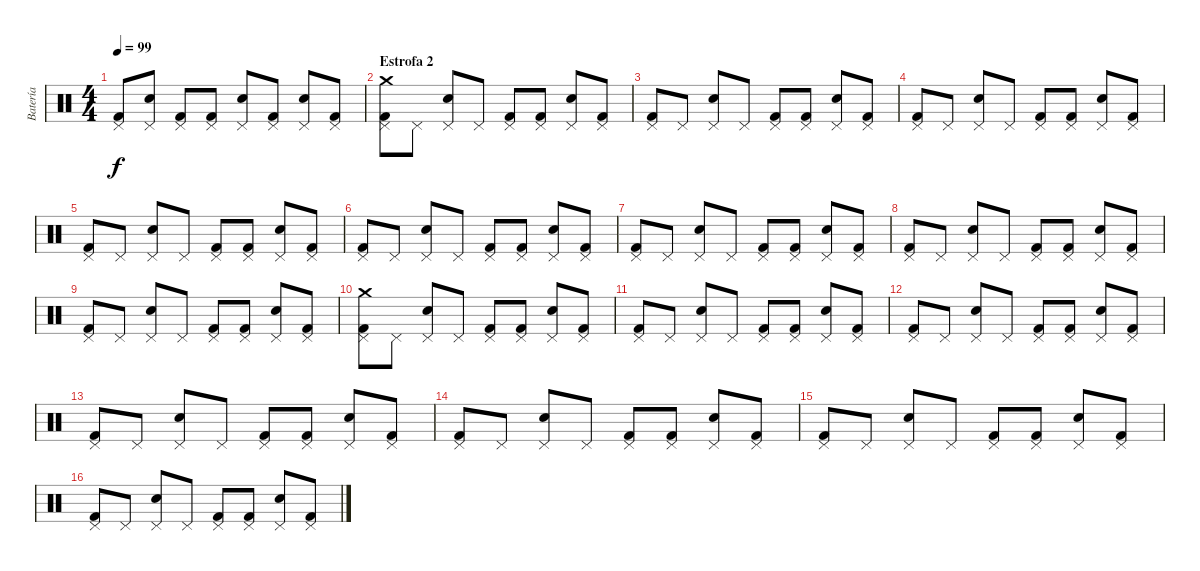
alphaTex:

\track ("Batería" "Batería") {instrument percussion}
\staff {score}
\articulation defaults
\ts (4 4)
\tempo 99
\clef neutral
\ks c
("Kick (hit) 2" "Pedal Hi-Hat (hit)").8{dy f} ("Snare (hit) 2" "Pedal Hi-Hat (hit)").8 ("Kick (hit) 2" "Pedal Hi-Hat (hit)").8 ("Kick (hit) 2" "Pedal Hi-Hat (hit)").8 ("Pedal Hi-Hat (hit)" "Snare (hit) 2").8 ("Pedal Hi-Hat (hit)" "Kick (hit) 2").8 ("Pedal Hi-Hat (hit)" "Snare (hit) 2").8 ("Pedal Hi-Hat (hit)" "Kick (hit) 2").8 |
\section ("" "Estrofa 2")
("Crash medium (hit)" "Pedal Hi-Hat (hit)" "Kick (hit) 2").8 "Pedal Hi-Hat (hit)".8 ("Snare (hit) 2" "Pedal Hi-Hat (hit)").8 "Pedal Hi-Hat (hit)".8 ("Pedal Hi-Hat (hit)" "Kick (hit) 2").8 ("Kick (hit) 2" "Pedal Hi-Hat (hit)").8 ("Pedal Hi-Hat (hit)" "Snare (hit) 2").8 ("Kick (hit) 2" "Pedal Hi-Hat (hit)").8 |
("Pedal Hi-Hat (hit)" "Kick (hit) 2").8 "Pedal Hi-Hat (hit)".8 ("Pedal Hi-Hat (hit)" "Snare (hit) 2").8 "Pedal Hi-Hat (hit)".8 ("Pedal Hi-Hat (hit)" "Kick (hit) 2").8 ("Pedal Hi-Hat (hit)" "Kick (hit) 2").8 ("Pedal Hi-Hat (hit)" "Snare (hit) 2").8 ("Pedal Hi-Hat (hit)" "Kick (hit) 2").8 |
("Kick (hit) 2" "Pedal Hi-Hat (hit)").8 "Pedal Hi-Hat (hit)".8 ("Snare (hit) 2" "Pedal Hi-Hat (hit)").8 "Pedal Hi-Hat (hit)".8 ("Kick (hit) 2" "Pedal Hi-Hat (hit)").8 ("Kick (hit) 2" "Pedal Hi-Hat (hit)").8 ("Snare (hit) 2" "Pedal Hi-Hat (hit)").8 ("Kick (hit) 2" "Pedal Hi-Hat (hit)").8 |
("Pedal Hi-Hat (hit)" "Kick (hit) 2").8 "Pedal Hi-Hat (hit)".8 ("Pedal Hi-Hat (hit)" "Snare (hit) 2").8 "Pedal Hi-Hat (hit)".8 ("Pedal Hi-Hat (hit)" "Kick (hit) 2").8 ("Pedal Hi-Hat (hit)" "Kick (hit) 2").8 ("Pedal Hi-Hat (hit)" "Snare (hit) 2").8 ("Pedal Hi-Hat (hit)" "Kick (hit) 2").8 |
("Pedal Hi-Hat (hit)" "Kick (hit) 2").8 "Pedal Hi-Hat (hit)".8 ("Snare (hit) 2" "Pedal Hi-Hat (hit)").8 "Pedal Hi-Hat (hit)".8 ("Pedal Hi-Hat (hit)" "Kick (hit) 2").8 ("Kick (hit) 2" "Pedal Hi-Hat (hit)").8 ("Pedal Hi-Hat (hit)" "Snare (hit) 2").8 ("Kick (hit) 2" "Pedal Hi-Hat (hit)").8 |
("Pedal Hi-Hat (hit)" "Kick (hit) 2").8 "Pedal Hi-Hat (hit)".8 ("Pedal Hi-Hat (hit)" "Snare (hit) 2").8 "Pedal Hi-Hat (hit)".8 ("Pedal Hi-Hat (hit)" "Kick (hit) 2").8 ("Pedal Hi-Hat (hit)" "Kick (hit) 2").8 ("Pedal Hi-Hat (hit)" "Snare (hit) 2").8 ("Pedal Hi-Hat (hit)" "Kick (hit) 2").8 |
("Kick (hit) 2" "Pedal Hi-Hat (hit)").8 "Pedal Hi-Hat (hit)".8 ("Snare (hit) 2" "Pedal Hi-Hat (hit)").8 "Pedal Hi-Hat (hit)".8 ("Kick (hit) 2" "Pedal Hi-Hat (hit)").8 ("Kick (hit) 2" "Pedal Hi-Hat (hit)").8 ("Snare (hit) 2" "Pedal Hi-Hat (hit)").8 ("Kick (hit) 2" "Pedal Hi-Hat (hit)").8 |
("Pedal Hi-Hat (hit)" "Kick (hit) 2").8 "Pedal Hi-Hat (hit)".8 ("Pedal Hi-Hat (hit)" "Snare (hit) 2").8 "Pedal Hi-Hat (hit)".8 ("Pedal Hi-Hat (hit)" "Kick (hit) 2").8 ("Pedal Hi-Hat (hit)" "Kick (hit) 2").8 ("Pedal Hi-Hat (hit)" "Snare (hit) 2").8 ("Pedal Hi-Hat (hit)" "Kick (hit) 2").8 |
("Crash medium (hit)" "Pedal Hi-Hat (hit)" "Kick (hit) 2").8 "Pedal Hi-Hat (hit)".8 ("Snare (hit) 2" "Pedal Hi-Hat (hit)").8 "Pedal Hi-Hat (hit)".8 ("Pedal Hi-Hat (hit)" "Kick (hit) 2").8 ("Kick (hit) 2" "Pedal Hi-Hat (hit)").8 ("Pedal Hi-Hat (hit)" "Snare (hit) 2").8 ("Kick (hit) 2" "Pedal Hi-Hat (hit)").8 |
("Kick (hit) 2" "Pedal Hi-Hat (hit)").8 "Pedal Hi-Hat (hit)".8 ("Snare (hit) 2" "Pedal Hi-Hat (hit)").8 "Pedal Hi-Hat (hit)".8 ("Kick (hit) 2" "Pedal Hi-Hat (hit)").8 ("Kick (hit) 2" "Pedal Hi-Hat (hit)").8 ("Snare (hit) 2" "Pedal Hi-Hat (hit)").8 ("Kick (hit) 2" "Pedal Hi-Hat (hit)").8 |
("Pedal Hi-Hat (hit)" "Kick (hit) 2").8 "Pedal Hi-Hat (hit)".8 ("Pedal Hi-Hat (hit)" "Snare (hit) 2").8 "Pedal Hi-Hat (hit)".8 ("Pedal Hi-Hat (hit)" "Kick (hit) 2").8 ("Pedal Hi-Hat (hit)" "Kick (hit) 2").8 ("Pedal Hi-Hat (hit)" "Snare (hit) 2").8 ("Pedal Hi-Hat (hit)" "Kick (hit) 2").8 |
("Pedal Hi-Hat (hit)" "Kick (hit) 2").8 "Pedal Hi-Hat (hit)".8 ("Pedal Hi-Hat (hit)" "Snare (hit) 2").8 "Pedal Hi-Hat (hit)".8 ("Pedal Hi-Hat (hit)" "Kick (hit) 2").8 ("Pedal Hi-Hat (hit)" "Kick (hit) 2").8 ("Pedal Hi-Hat (hit)" "Snare (hit) 2").8 ("Pedal Hi-Hat (hit)" "Kick (hit) 2").8 |
("Pedal Hi-Hat (hit)" "Kick (hit) 2").8 "Pedal Hi-Hat (hit)".8 ("Snare (hit) 2" "Pedal Hi-Hat (hit)").8 "Pedal Hi-Hat (hit)".8 ("Pedal Hi-Hat (hit)" "Kick (hit) 2").8 ("Kick (hit) 2" "Pedal Hi-Hat (hit)").8 ("Pedal Hi-Hat (hit)" "Snare (hit) 2").8 ("Kick (hit) 2" "Pedal Hi-Hat (hit)").8 |
("Pedal Hi-Hat (hit)" "Kick (hit) 2").8 "Pedal Hi-Hat (hit)".8 ("Pedal Hi-Hat (hit)" "Snare (hit) 2").8 "Pedal Hi-Hat (hit)".8 ("Pedal Hi-Hat (hit)" "Kick (hit) 2").8 ("Pedal Hi-Hat (hit)" "Kick (hit) 2").8 ("Pedal Hi-Hat (hit)" "Snare (hit) 2").8 ("Pedal Hi-Hat (hit)" "Kick (hit) 2").8 |
("Kick (hit) 2" "Pedal Hi-Hat (hit)").8 "Pedal Hi-Hat (hit)".8 ("Snare (hit) 2" "Pedal Hi-Hat (hit)").8 "Pedal Hi-Hat (hit)".8 ("Kick (hit) 2" "Pedal Hi-Hat (hit)").8 ("Kick (hit) 2" "Pedal Hi-Hat (hit)").8 ("Snare (hit) 2" "Pedal Hi-Hat (hit)").8 ("Kick (hit) 2" "Pedal Hi-Hat (hit)").8
